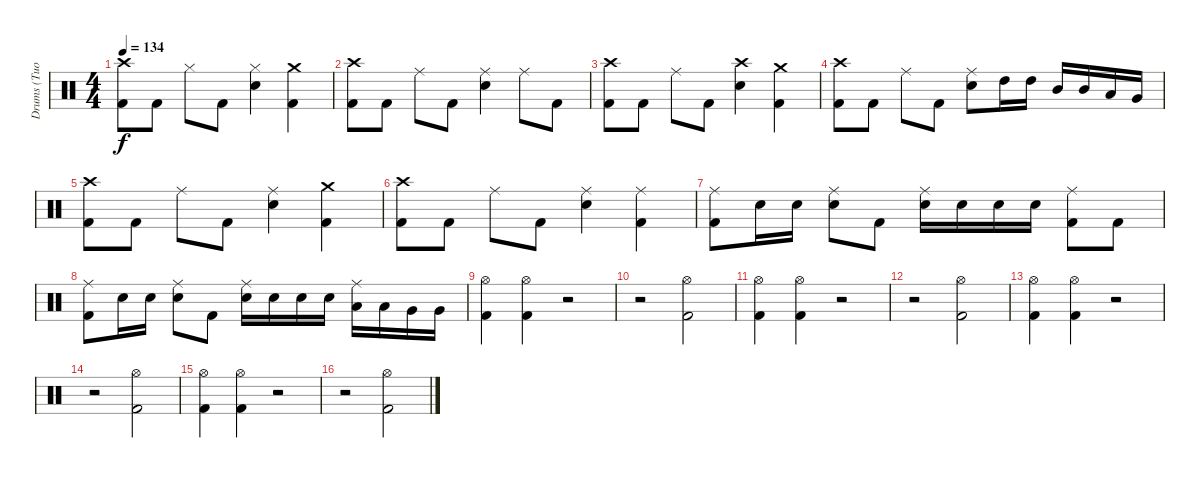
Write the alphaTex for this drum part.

\track ("Drums (Tuomo Lassila)" "Drums (Tuo") {instrument percussion}
\staff {score}
\articulation defaults
\ts (4 4)
\tempo 134
\clef neutral
\ks c
("Crash high (hit)" "Kick (hit) 2").8{dy f} "Kick (hit) 2".8 "Hi-Hat (closed)".8 "Kick (hit) 2".8 ("Hi-Hat (closed)" "Snare (hit) 2").4 ("Crash medium (hit)" "Kick (hit) 2").4 |
("Crash high (hit)" "Kick (hit) 2").8 "Kick (hit) 2".8 "Ride (middle)".8 "Kick (hit) 2".8 ("Ride (middle)" "Snare (hit) 2").4 "Ride (middle)".8 "Kick (hit) 2".8 |
("Crash high (hit)" "Kick (hit) 2").8 "Kick (hit) 2".8 "Ride (middle)".8 "Kick (hit) 2".8 ("Crash high (hit)" "Snare (hit) 2").4 ("Crash medium (hit)" "Kick (hit) 2").4 |
("Crash high (hit)" "Kick (hit) 2").8 "Kick (hit) 2".8 "Ride (middle)".8 "Kick (hit) 2".8 ("Ride (middle)" "Snare (hit) 2").8 "High Tom (hit)".16 "High Tom (hit)".16 "Mid Tom (hit)".16 "Mid Tom (hit)".16 "Low Tom (hit)".16 "Very Low Tom (hit)".16 |
("Crash high (hit)" "Kick (hit) 2").8 "Kick (hit) 2".8 "Ride (middle)".8 "Kick (hit) 2".8 ("Ride (middle)" "Snare (hit) 2").4 ("Crash medium (hit)" "Kick (hit) 2").4 |
("Crash high (hit)" "Kick (hit) 2").8 "Kick (hit) 2".8 "Ride (middle)".8 "Kick (hit) 2".8 ("Ride (middle)" "Snare (hit) 2").4 ("Ride (middle)" "Kick (hit) 2").4 |
("Ride (middle)" "Kick (hit) 2").8 "Snare (hit) 2".16 "Snare (hit) 2".16 ("Ride (middle)" "Snare (hit) 2").8 "Kick (hit) 2".8 ("Ride (middle)" "Snare (hit) 2").16 "Snare (hit) 2".16 "Snare (hit) 2".16 "Snare (hit) 2".16 ("Ride (middle)" "Kick (hit) 2").8 "Kick (hit) 2".8 |
("Ride (middle)" "Kick (hit) 2").8 "Snare (hit) 2".16 "Snare (hit) 2".16 ("Ride (middle)" "Snare (hit) 2").8 "Kick (hit) 2".8 ("Ride (middle)" "Snare (hit) 2").16 "Snare (hit) 2".16 "Snare (hit) 2".16 "Snare (hit) 2".16 ("Ride (middle)" "Low Tom (hit)").16 "Low Tom (hit)".16 "Very Low Tom (hit)".16 "Very Low Tom (hit)".16 |
("Hi-Hat (open)" "Kick (hit) 2").4 ("Hi-Hat (open)" "Kick (hit) 2").4 r.2 |
r.2 ("Hi-Hat (open)" "Kick (hit) 2").2 |
("Hi-Hat (open)" "Kick (hit) 2").4 ("Hi-Hat (open)" "Kick (hit) 2").4 r.2 |
r.2 ("Hi-Hat (open)" "Kick (hit) 2").2 |
("Hi-Hat (open)" "Kick (hit) 2").4 ("Hi-Hat (open)" "Kick (hit) 2").4 r.2 |
r.2 ("Hi-Hat (open)" "Kick (hit) 2").2 |
("Hi-Hat (open)" "Kick (hit) 2").4 ("Hi-Hat (open)" "Kick (hit) 2").4 r.2 |
r.2 ("Hi-Hat (open)" "Kick (hit) 2").2
